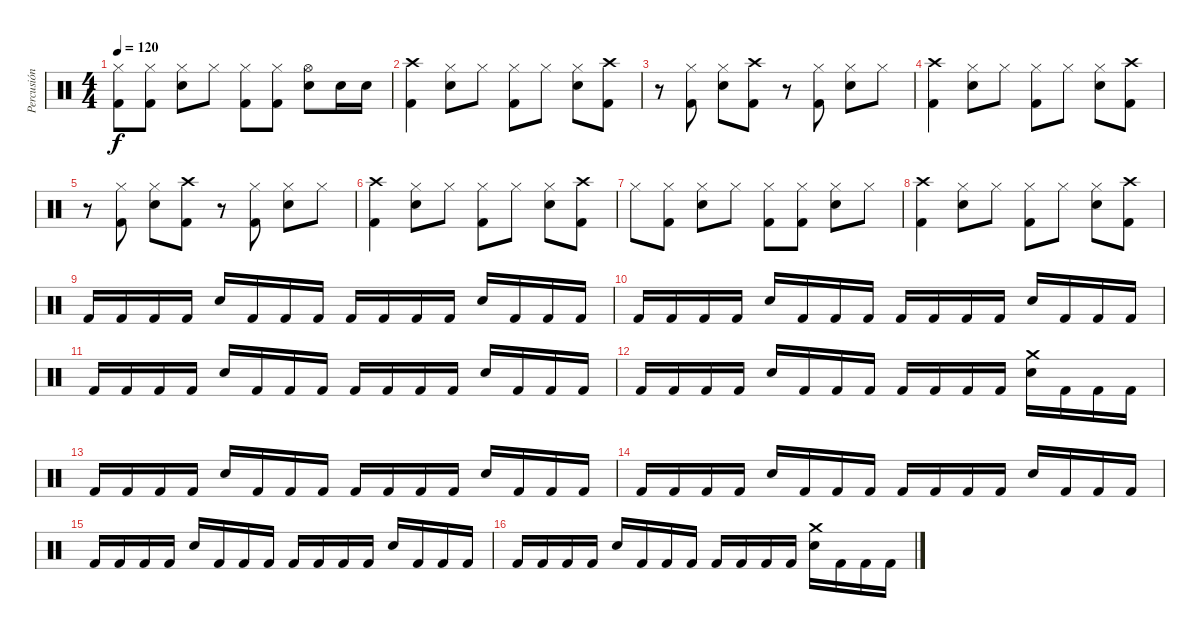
\track ("Percusión" "Percusión") {instrument percussion}
\staff {score}
\articulation defaults
\ts (4 4)
\tempo 120
\clef neutral
\ks c
("Hi-Hat (closed)" "Kick (hit) 2").8{dy f} ("Hi-Hat (closed)" "Kick (hit) 2").8 ("Hi-Hat (closed)" "Snare (hit) 2").8 "Hi-Hat (closed)".8 ("Hi-Hat (closed)" "Kick (hit) 2").8 ("Hi-Hat (closed)" "Kick (hit) 2").8 ("Hi-Hat (open)" "Snare (hit) 2").8 "Snare (hit) 2".16 "Snare (hit) 2".16 |
("Crash high (hit)" "Kick (hit) 2").4 ("Hi-Hat (closed)" "Snare (hit) 2").8 "Hi-Hat (closed)".8 ("Hi-Hat (closed)" "Kick (hit) 2").8 "Hi-Hat (closed)".8 ("Hi-Hat (closed)" "Snare (hit) 2").8 ("Crash high (hit)" "Kick (hit) 2").8 |
r.8 ("Hi-Hat (closed)" "Kick (hit) 2").8 ("Hi-Hat (closed)" "Snare (hit) 2").8 ("Crash high (hit)" "Kick (hit) 2").8 r.8 ("Hi-Hat (closed)" "Kick (hit) 2").8 ("Hi-Hat (closed)" "Snare (hit) 2").8 "Hi-Hat (closed)".8 |
("Crash high (hit)" "Kick (hit) 2").4 ("Hi-Hat (closed)" "Snare (hit) 2").8 "Hi-Hat (closed)".8 ("Hi-Hat (closed)" "Kick (hit) 2").8 "Hi-Hat (closed)".8 ("Hi-Hat (closed)" "Snare (hit) 2").8 ("Crash high (hit)" "Kick (hit) 2").8 |
r.8 ("Hi-Hat (closed)" "Kick (hit) 2").8 ("Hi-Hat (closed)" "Snare (hit) 2").8 ("Crash high (hit)" "Kick (hit) 2").8 r.8 ("Hi-Hat (closed)" "Kick (hit) 2").8 ("Hi-Hat (closed)" "Snare (hit) 2").8 "Hi-Hat (closed)".8 |
("Crash high (hit)" "Kick (hit) 2").4 ("Hi-Hat (closed)" "Snare (hit) 2").8 "Hi-Hat (closed)".8 ("Hi-Hat (closed)" "Kick (hit) 2").8 "Hi-Hat (closed)".8 ("Hi-Hat (closed)" "Snare (hit) 2").8 ("Crash high (hit)" "Kick (hit) 2").8 |
"Hi-Hat (closed)".8 ("Hi-Hat (closed)" "Kick (hit) 2").8 ("Hi-Hat (closed)" "Snare (hit) 2").8 "Hi-Hat (closed)".8 ("Hi-Hat (closed)" "Kick (hit) 2").8 ("Hi-Hat (closed)" "Kick (hit) 2").8 ("Hi-Hat (closed)" "Snare (hit) 2").8 "Hi-Hat (closed)".8 |
("Crash high (hit)" "Kick (hit) 2").4 ("Hi-Hat (closed)" "Snare (hit) 2").8 "Hi-Hat (closed)".8 ("Hi-Hat (closed)" "Kick (hit) 2").8 "Hi-Hat (closed)".8 ("Hi-Hat (closed)" "Snare (hit) 2").8 ("Crash high (hit)" "Kick (hit) 2").8 |
"Kick (hit) 2".16 "Kick (hit) 2".16 "Kick (hit) 2".16 "Kick (hit) 2".16 "Electric Snare (hit)".16 "Kick (hit) 2".16 "Kick (hit) 2".16 "Kick (hit) 2".16 "Kick (hit) 2".16 "Kick (hit) 2".16 "Kick (hit) 2".16 "Kick (hit) 2".16 "Electric Snare (hit)".16 "Kick (hit) 2".16 "Kick (hit) 2".16 "Kick (hit) 2".16 |
"Kick (hit) 2".16 "Kick (hit) 2".16 "Kick (hit) 2".16 "Kick (hit) 2".16 "Electric Snare (hit)".16 "Kick (hit) 2".16 "Kick (hit) 2".16 "Kick (hit) 2".16 "Kick (hit) 2".16 "Kick (hit) 2".16 "Kick (hit) 2".16 "Kick (hit) 2".16 "Electric Snare (hit)".16 "Kick (hit) 2".16 "Kick (hit) 2".16 "Kick (hit) 2".16 |
"Kick (hit) 2".16 "Kick (hit) 2".16 "Kick (hit) 2".16 "Kick (hit) 2".16 "Electric Snare (hit)".16 "Kick (hit) 2".16 "Kick (hit) 2".16 "Kick (hit) 2".16 "Kick (hit) 2".16 "Kick (hit) 2".16 "Kick (hit) 2".16 "Kick (hit) 2".16 "Electric Snare (hit)".16 "Kick (hit) 2".16 "Kick (hit) 2".16 "Kick (hit) 2".16 |
"Kick (hit) 2".16 "Kick (hit) 2".16 "Kick (hit) 2".16 "Kick (hit) 2".16 "Electric Snare (hit)".16 "Kick (hit) 2".16 "Kick (hit) 2".16 "Kick (hit) 2".16 "Kick (hit) 2".16 "Kick (hit) 2".16 "Kick (hit) 2".16 "Kick (hit) 2".16 ("Crash medium (hit)" "Electric Snare (hit)").16 "Kick (hit) 2".16 "Kick (hit) 2".16 "Kick (hit) 2".16 |
"Kick (hit) 2".16 "Kick (hit) 2".16 "Kick (hit) 2".16 "Kick (hit) 2".16 "Electric Snare (hit)".16 "Kick (hit) 2".16 "Kick (hit) 2".16 "Kick (hit) 2".16 "Kick (hit) 2".16 "Kick (hit) 2".16 "Kick (hit) 2".16 "Kick (hit) 2".16 "Electric Snare (hit)".16 "Kick (hit) 2".16 "Kick (hit) 2".16 "Kick (hit) 2".16 |
"Kick (hit) 2".16 "Kick (hit) 2".16 "Kick (hit) 2".16 "Kick (hit) 2".16 "Electric Snare (hit)".16 "Kick (hit) 2".16 "Kick (hit) 2".16 "Kick (hit) 2".16 "Kick (hit) 2".16 "Kick (hit) 2".16 "Kick (hit) 2".16 "Kick (hit) 2".16 "Electric Snare (hit)".16 "Kick (hit) 2".16 "Kick (hit) 2".16 "Kick (hit) 2".16 |
"Kick (hit) 2".16 "Kick (hit) 2".16 "Kick (hit) 2".16 "Kick (hit) 2".16 "Electric Snare (hit)".16 "Kick (hit) 2".16 "Kick (hit) 2".16 "Kick (hit) 2".16 "Kick (hit) 2".16 "Kick (hit) 2".16 "Kick (hit) 2".16 "Kick (hit) 2".16 "Electric Snare (hit)".16 "Kick (hit) 2".16 "Kick (hit) 2".16 "Kick (hit) 2".16 |
"Kick (hit) 2".16 "Kick (hit) 2".16 "Kick (hit) 2".16 "Kick (hit) 2".16 "Electric Snare (hit)".16 "Kick (hit) 2".16 "Kick (hit) 2".16 "Kick (hit) 2".16 "Kick (hit) 2".16 "Kick (hit) 2".16 "Kick (hit) 2".16 "Kick (hit) 2".16 ("Crash medium (hit)" "Electric Snare (hit)").16 "Kick (hit) 2".16 "Kick (hit) 2".16 "Kick (hit) 2".16
